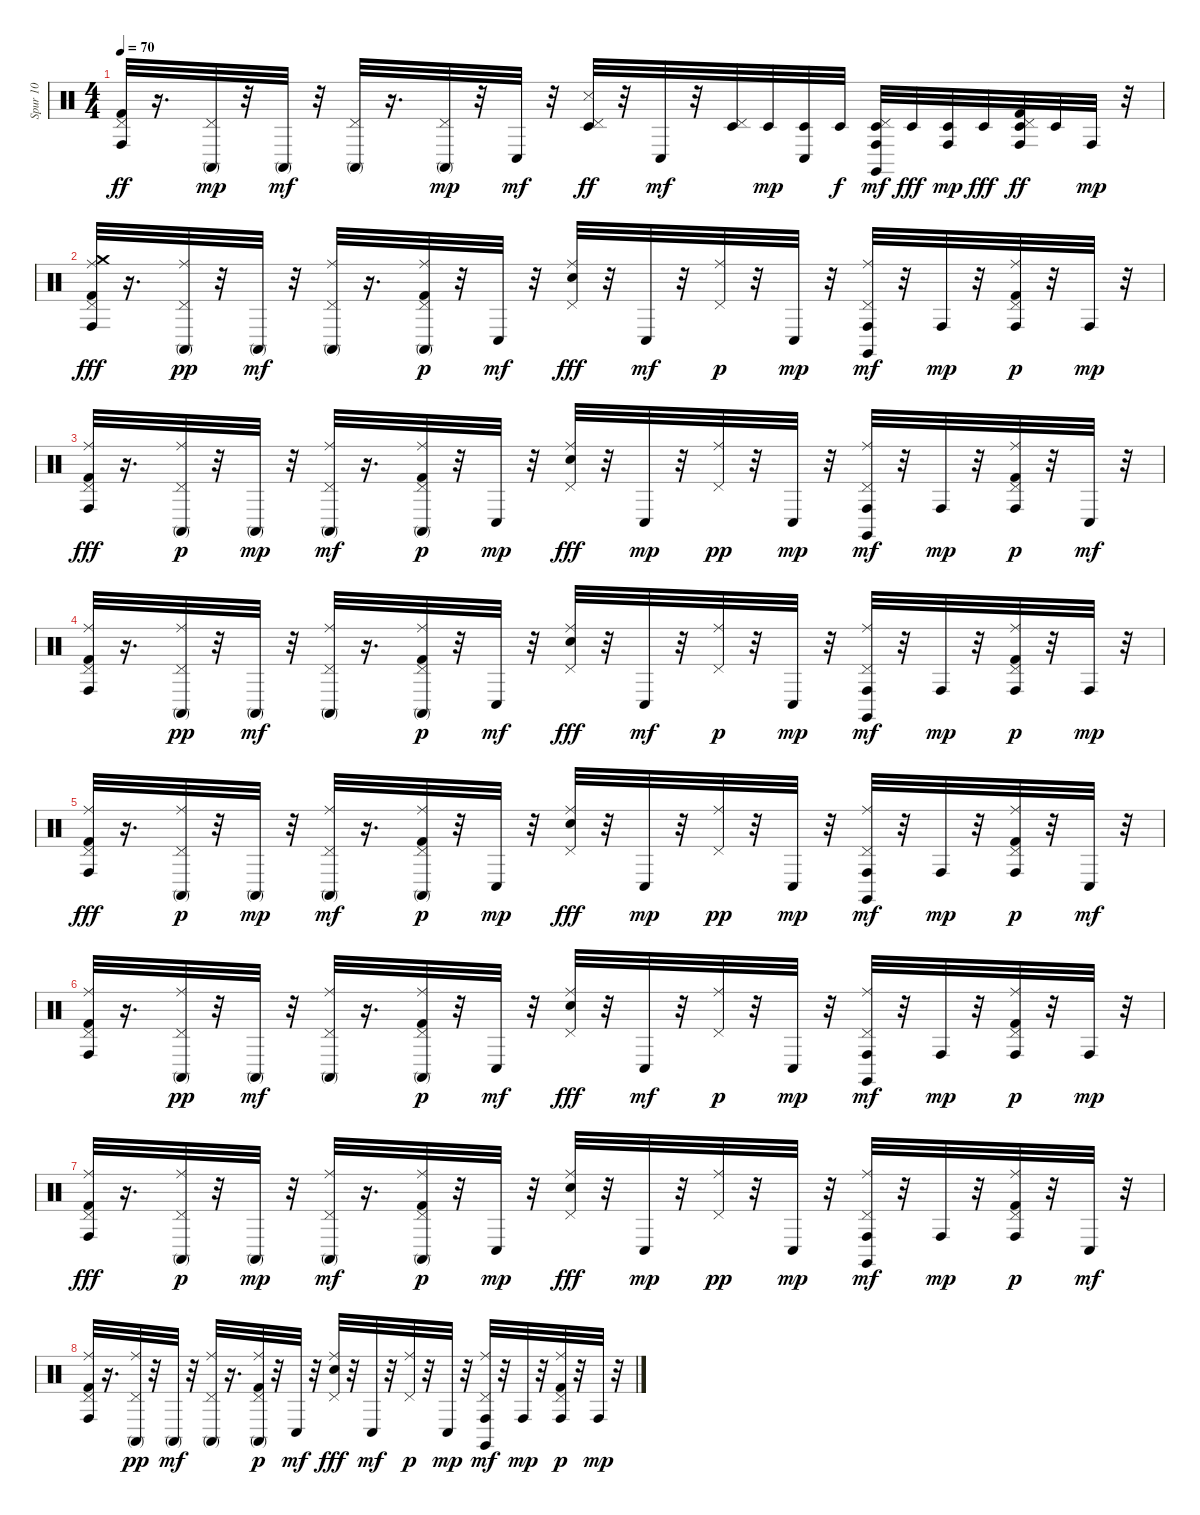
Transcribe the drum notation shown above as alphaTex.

\track ("Spur 10" "Spur 10") {instrument percussion}
\staff {score}
\articulation defaults
\ts (4 4)
\tempo 70
\clef neutral
\ks c
("Pedal Hi-Hat (hit)" "Conga high (hit)" "Kick (hit) 2").32{dy ff} r.16{d} ("Pedal Hi-Hat (hit)" "Conga high (mute)").32{dy mp} r.32 "Conga high (mute)".32{dy mf} r.32 ("Pedal Hi-Hat (hit)" "Conga high (mute)").32 r.16{d} ("Pedal Hi-Hat (hit)" "Conga high (mute)").32{dy mp} r.32 "Conga low (hit)".32{dy mf} r.32 ("Timbale low (hit)" "Pedal Hi-Hat (hit)" "Snare (side stick) 3").32{dy ff} r.32 "Conga low (hit)".32{dy mf} r.32 ("Timbale low (hit)" "Pedal Hi-Hat (hit)").32 "Timbale low (hit)".32{dy mp} ("Timbale low (hit)" "Conga low (hit)").32 "Timbale low (hit)".32{dy f} ("Timbale low (hit)" "Pedal Hi-Hat (hit)" "Conga high (hit)" "Claves (hit)").32{dy mf} "Timbale low (hit)".32{dy fff} ("Timbale low (hit)" "Conga high (hit)").32{dy mp} "Timbale low (hit)".32{dy fff} ("Timbale low (hit)" "Pedal Hi-Hat (hit)" "Conga high (hit)" "Kick (hit) 2").32{dy ff} "Timbale low (hit)".32 "Conga high (hit)".32{dy mp} r.32 |
("Pedal Hi-Hat (hit)" "Conga high (hit)" "Kick (hit) 2" "Ride (middle)" "Crash medium (hit)").32{dy fff} r.16{d} ("Pedal Hi-Hat (hit)" "Conga high (mute)" "Ride (middle)").32{dy pp} r.32 "Conga high (mute)".32{dy mf} r.32 ("Pedal Hi-Hat (hit)" "Conga high (mute)" "Ride (middle)").32 r.16{d} ("Pedal Hi-Hat (hit)" "Conga high (mute)" "Kick (hit) 2" "Ride (middle)").32{dy p} r.32 "Conga low (hit)".32{dy mf} r.32 ("Pedal Hi-Hat (hit)" "Snare (hit) 2" "Ride (middle)").32{dy fff} r.32 "Conga low (hit)".32{dy mf} r.32 ("Pedal Hi-Hat (hit)" "Ride (middle)").32{dy p} r.32 "Conga low (hit)".32{dy mp} r.32 ("Pedal Hi-Hat (hit)" "Conga high (hit)" "Claves (hit)" "Ride (middle)").32{dy mf} r.32 "Conga high (hit)".32{dy mp} r.32 ("Pedal Hi-Hat (hit)" "Conga high (hit)" "Kick (hit) 2" "Ride (middle)").32{dy p} r.32 "Conga high (hit)".32{dy mp} r.32 |
("Pedal Hi-Hat (hit)" "Conga high (hit)" "Kick (hit) 2" "Ride (middle)").32{dy fff} r.16{d} ("Pedal Hi-Hat (hit)" "Conga high (mute)" "Ride (middle)").32{dy p} r.32 "Conga high (mute)".32{dy mp} r.32 ("Pedal Hi-Hat (hit)" "Conga high (mute)" "Ride (middle)").32{dy mf} r.16{d} ("Pedal Hi-Hat (hit)" "Conga high (mute)" "Kick (hit) 2" "Ride (middle)").32{dy p} r.32 "Conga low (hit)".32{dy mp} r.32 ("Pedal Hi-Hat (hit)" "Snare (hit) 2" "Ride (middle)").32{dy fff} r.32 "Conga low (hit)".32{dy mp} r.32 ("Pedal Hi-Hat (hit)" "Ride (middle)").32{dy pp} r.32 "Conga low (hit)".32{dy mp} r.32 ("Pedal Hi-Hat (hit)" "Conga high (hit)" "Claves (hit)" "Ride (middle)").32{dy mf} r.32 "Conga high (hit)".32{dy mp} r.32 ("Pedal Hi-Hat (hit)" "Conga high (hit)" "Kick (hit) 2" "Ride (middle)").32{dy p} r.32 "Conga low (hit)".32{dy mf} r.32 |
("Pedal Hi-Hat (hit)" "Conga high (hit)" "Kick (hit) 2" "Ride (middle)").32 r.16{d} ("Pedal Hi-Hat (hit)" "Conga high (mute)" "Ride (middle)").32{dy pp} r.32 "Conga high (mute)".32{dy mf} r.32 ("Pedal Hi-Hat (hit)" "Conga high (mute)" "Ride (middle)").32 r.16{d} ("Pedal Hi-Hat (hit)" "Conga high (mute)" "Kick (hit) 2" "Ride (middle)").32{dy p} r.32 "Conga low (hit)".32{dy mf} r.32 ("Pedal Hi-Hat (hit)" "Snare (hit) 2" "Ride (middle)").32{dy fff} r.32 "Conga low (hit)".32{dy mf} r.32 ("Pedal Hi-Hat (hit)" "Ride (middle)").32{dy p} r.32 "Conga low (hit)".32{dy mp} r.32 ("Pedal Hi-Hat (hit)" "Conga high (hit)" "Claves (hit)" "Ride (middle)").32{dy mf} r.32 "Conga high (hit)".32{dy mp} r.32 ("Pedal Hi-Hat (hit)" "Conga high (hit)" "Kick (hit) 2" "Ride (middle)").32{dy p} r.32 "Conga high (hit)".32{dy mp} r.32 |
("Pedal Hi-Hat (hit)" "Conga high (hit)" "Kick (hit) 2" "Ride (middle)").32{dy fff} r.16{d} ("Pedal Hi-Hat (hit)" "Conga high (mute)" "Ride (middle)").32{dy p} r.32 "Conga high (mute)".32{dy mp} r.32 ("Pedal Hi-Hat (hit)" "Conga high (mute)" "Ride (middle)").32{dy mf} r.16{d} ("Pedal Hi-Hat (hit)" "Conga high (mute)" "Kick (hit) 2" "Ride (middle)").32{dy p} r.32 "Conga low (hit)".32{dy mp} r.32 ("Pedal Hi-Hat (hit)" "Snare (hit) 2" "Ride (middle)").32{dy fff} r.32 "Conga low (hit)".32{dy mp} r.32 ("Pedal Hi-Hat (hit)" "Ride (middle)").32{dy pp} r.32 "Conga low (hit)".32{dy mp} r.32 ("Pedal Hi-Hat (hit)" "Conga high (hit)" "Claves (hit)" "Ride (middle)").32{dy mf} r.32 "Conga high (hit)".32{dy mp} r.32 ("Pedal Hi-Hat (hit)" "Conga high (hit)" "Kick (hit) 2" "Ride (middle)").32{dy p} r.32 "Conga low (hit)".32{dy mf} r.32 |
("Pedal Hi-Hat (hit)" "Conga high (hit)" "Kick (hit) 2" "Ride (middle)").32 r.16{d} ("Pedal Hi-Hat (hit)" "Conga high (mute)" "Ride (middle)").32{dy pp} r.32 "Conga high (mute)".32{dy mf} r.32 ("Pedal Hi-Hat (hit)" "Conga high (mute)" "Ride (middle)").32 r.16{d} ("Pedal Hi-Hat (hit)" "Conga high (mute)" "Kick (hit) 2" "Ride (middle)").32{dy p} r.32 "Conga low (hit)".32{dy mf} r.32 ("Pedal Hi-Hat (hit)" "Snare (hit) 2" "Ride (middle)").32{dy fff} r.32 "Conga low (hit)".32{dy mf} r.32 ("Pedal Hi-Hat (hit)" "Ride (middle)").32{dy p} r.32 "Conga low (hit)".32{dy mp} r.32 ("Pedal Hi-Hat (hit)" "Conga high (hit)" "Claves (hit)" "Ride (middle)").32{dy mf} r.32 "Conga high (hit)".32{dy mp} r.32 ("Pedal Hi-Hat (hit)" "Conga high (hit)" "Kick (hit) 2" "Ride (middle)").32{dy p} r.32 "Conga high (hit)".32{dy mp} r.32 |
("Pedal Hi-Hat (hit)" "Conga high (hit)" "Kick (hit) 2" "Ride (middle)").32{dy fff} r.16{d} ("Pedal Hi-Hat (hit)" "Conga high (mute)" "Ride (middle)").32{dy p} r.32 "Conga high (mute)".32{dy mp} r.32 ("Pedal Hi-Hat (hit)" "Conga high (mute)" "Ride (middle)").32{dy mf} r.16{d} ("Pedal Hi-Hat (hit)" "Conga high (mute)" "Kick (hit) 2" "Ride (middle)").32{dy p} r.32 "Conga low (hit)".32{dy mp} r.32 ("Pedal Hi-Hat (hit)" "Snare (hit) 2" "Ride (middle)").32{dy fff} r.32 "Conga low (hit)".32{dy mp} r.32 ("Pedal Hi-Hat (hit)" "Ride (middle)").32{dy pp} r.32 "Conga low (hit)".32{dy mp} r.32 ("Pedal Hi-Hat (hit)" "Conga high (hit)" "Claves (hit)" "Ride (middle)").32{dy mf} r.32 "Conga high (hit)".32{dy mp} r.32 ("Pedal Hi-Hat (hit)" "Conga high (hit)" "Kick (hit) 2" "Ride (middle)").32{dy p} r.32 "Conga low (hit)".32{dy mf} r.32 |
("Pedal Hi-Hat (hit)" "Conga high (hit)" "Kick (hit) 2" "Ride (middle)").32 r.16{d} ("Pedal Hi-Hat (hit)" "Conga high (mute)" "Ride (middle)").32{dy pp} r.32 "Conga high (mute)".32{dy mf} r.32 ("Pedal Hi-Hat (hit)" "Conga high (mute)" "Ride (middle)").32 r.16{d} ("Pedal Hi-Hat (hit)" "Conga high (mute)" "Kick (hit) 2" "Ride (middle)").32{dy p} r.32 "Conga low (hit)".32{dy mf} r.32 ("Pedal Hi-Hat (hit)" "Snare (hit) 2" "Ride (middle)").32{dy fff} r.32 "Conga low (hit)".32{dy mf} r.32 ("Pedal Hi-Hat (hit)" "Ride (middle)").32{dy p} r.32 "Conga low (hit)".32{dy mp} r.32 ("Pedal Hi-Hat (hit)" "Conga high (hit)" "Claves (hit)" "Ride (middle)").32{dy mf} r.32 "Conga high (hit)".32{dy mp} r.32 ("Pedal Hi-Hat (hit)" "Conga high (hit)" "Kick (hit) 2" "Ride (middle)").32{dy p} r.32 "Conga high (hit)".32{dy mp} r.32
